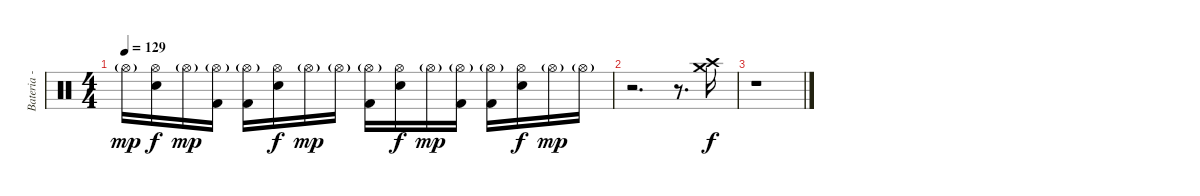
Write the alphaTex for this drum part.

\track ("Bateria - Larzon" "Bateria - ") {instrument percussion}
\staff {score}
\articulation defaults
\ts (4 4)
\tempo 129
\clef neutral
\ks c "Hi-Hat (open)"{g}.16{dy mp}
("Electric Snare (hit)" "Hi-Hat (open)").16{dy f} "Hi-Hat (open)"{g}.16{dy mp} ("Kick (hit) 2" "Hi-Hat (open)"{g}).16 ("Kick (hit) 2" "Hi-Hat (open)"{g}).16 ("Electric Snare (hit)" "Hi-Hat (open)").16{dy f} "Hi-Hat (open)"{g}.16{dy mp} "Hi-Hat (open)"{g}.16 ("Kick (hit) 2" "Hi-Hat (open)"{g}).16 ("Electric Snare (hit)" "Hi-Hat (open)").16{dy f} "Hi-Hat (open)"{g}.16{dy mp} ("Kick (hit) 2" "Hi-Hat (open)"{g}).16 ("Kick (hit) 2" "Hi-Hat (open)"{g}).16 ("Electric Snare (hit)" "Hi-Hat (open)").16{dy f} "Hi-Hat (open)"{g}.16{dy mp} "Hi-Hat (open)"{g}.16 |
r.2{d} r.8{d} ("Crash medium (hit)" "Crash high (hit)").16{dy f} |
r.1
